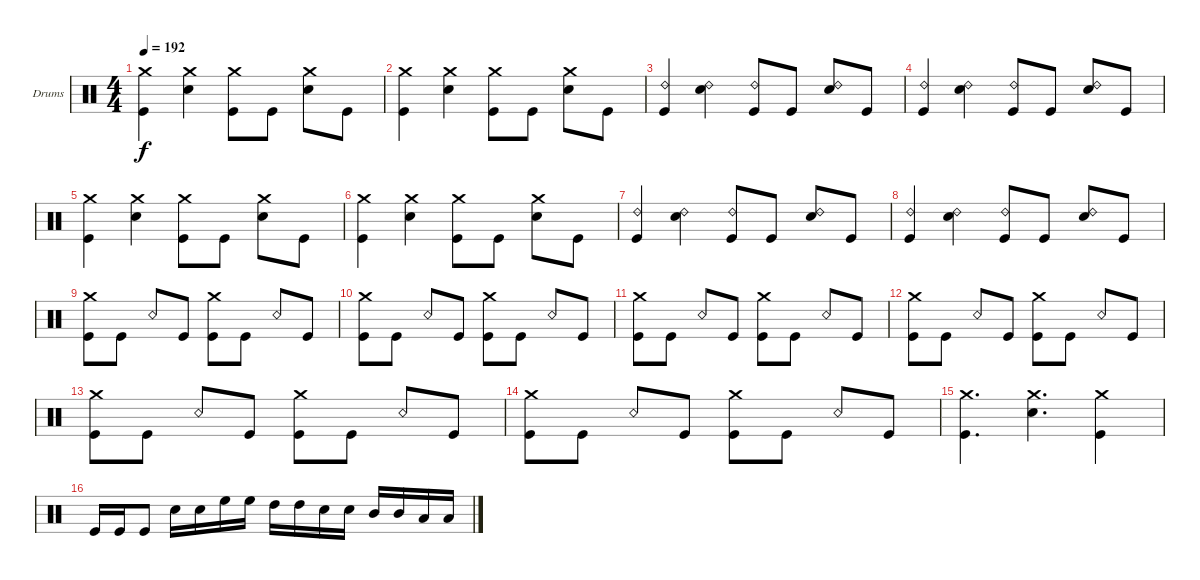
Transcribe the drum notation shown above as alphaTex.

\defaultSystemsLayout 4
\bracketExtendMode groupsimilarinstruments
\firstSystemTrackNameOrientation horizontal
\otherSystemsTrackNameOrientation horizontal
\track ("Drumkit" "Drums") {instrument percussion}
\staff {score}
\articulation defaults
\ts (4 4)
\tempo 192
\clef neutral
\ks c
("Crash medium (hit)" "Kick (hit)").4{dy f} ("Crash medium (hit)" "Snare (hit) 2").4 ("Crash medium (hit)" "Kick (hit)").8 "Kick (hit)".8 ("Crash medium (hit)" "Snare (hit) 2").8 "Kick (hit)".8 |
("Crash medium (hit)" "Kick (hit)").4 ("Crash medium (hit)" "Snare (hit) 2").4 ("Crash medium (hit)" "Kick (hit)").8 "Kick (hit)".8 ("Crash medium (hit)" "Snare (hit) 2").8 "Kick (hit)".8 |
("Kick (hit)" "Ride (bell) 2").4 ("Snare (hit) 2" "Ride (bell) 2").4 ("Kick (hit)" "Ride (bell) 2").8 "Kick (hit)".8 ("Snare (hit) 2" "Ride (bell) 2").8 "Kick (hit)".8 |
("Kick (hit)" "Ride (bell) 2").4 ("Snare (hit) 2" "Ride (bell) 2").4 ("Kick (hit)" "Ride (bell) 2").8 "Kick (hit)".8 ("Snare (hit) 2" "Ride (bell) 2").8 "Kick (hit)".8 |
("Crash medium (hit)" "Kick (hit)").4 ("Crash medium (hit)" "Snare (hit) 2").4 ("Crash medium (hit)" "Kick (hit)").8 "Kick (hit)".8 ("Crash medium (hit)" "Snare (hit) 2").8 "Kick (hit)".8 |
("Crash medium (hit)" "Kick (hit)").4 ("Crash medium (hit)" "Snare (hit) 2").4 ("Crash medium (hit)" "Kick (hit)").8 "Kick (hit)".8 ("Crash medium (hit)" "Snare (hit) 2").8 "Kick (hit)".8 |
("Kick (hit)" "Ride (bell) 2").4 ("Snare (hit) 2" "Ride (bell) 2").4 ("Kick (hit)" "Ride (bell) 2").8 "Kick (hit)".8 ("Snare (hit) 2" "Ride (bell) 2").8 "Kick (hit)".8 |
("Kick (hit)" "Ride (bell) 2").4 ("Snare (hit) 2" "Ride (bell) 2").4 ("Kick (hit)" "Ride (bell) 2").8 "Kick (hit)".8 ("Snare (hit) 2" "Ride (bell) 2").8 "Kick (hit)".8 |
("Crash medium (hit)" "Kick (hit)").8 "Kick (hit)".8 "Snare (rim shot)".8 "Kick (hit)".8 ("Kick (hit)" "Crash medium (hit)").8 "Kick (hit)".8 "Snare (rim shot)".8 "Kick (hit)".8 |
("Crash medium (hit)" "Kick (hit)").8 "Kick (hit)".8 "Snare (rim shot)".8 "Kick (hit)".8 ("Kick (hit)" "Crash medium (hit)").8 "Kick (hit)".8 "Snare (rim shot)".8 "Kick (hit)".8 |
("Crash medium (hit)" "Kick (hit)").8 "Kick (hit)".8 "Snare (rim shot)".8 "Kick (hit)".8 ("Kick (hit)" "Crash medium (hit)").8 "Kick (hit)".8 "Snare (rim shot)".8 "Kick (hit)".8 |
("Crash medium (hit)" "Kick (hit)").8 "Kick (hit)".8 "Snare (rim shot)".8 "Kick (hit)".8 ("Kick (hit)" "Crash medium (hit)").8 "Kick (hit)".8 "Snare (rim shot)".8 "Kick (hit)".8 |
("Crash medium (hit)" "Kick (hit)").8 "Kick (hit)".8 "Snare (rim shot)".8 "Kick (hit)".8 ("Kick (hit)" "Crash medium (hit)").8 "Kick (hit)".8 "Snare (rim shot)".8 "Kick (hit)".8 |
("Crash medium (hit)" "Kick (hit)").8 "Kick (hit)".8 "Snare (rim shot)".8 "Kick (hit)".8 ("Kick (hit)" "Crash medium (hit)").8 "Kick (hit)".8 "Snare (rim shot)".8 "Kick (hit)".8 |
("Crash medium (hit)" "Kick (hit)").4{d} ("Crash medium (hit)" "Snare (hit) 2").4{d} ("Crash medium (hit)" "Kick (hit)").4 |
"Kick (hit)".16 "Kick (hit)".16 "Kick (hit)".8 "Snare (hit) 2".16 "Snare (hit) 2".16 "High Floor Tom (hit)".16 "High Floor Tom (hit)".16 "High Tom (hit)".16 "High Tom (hit)".16 "Snare (hit) 2".16 "Snare (hit) 2".16 "Mid Tom (hit)".16 "Mid Tom (hit)".16 "Low Tom (hit)".16 "Low Tom (hit)".16
